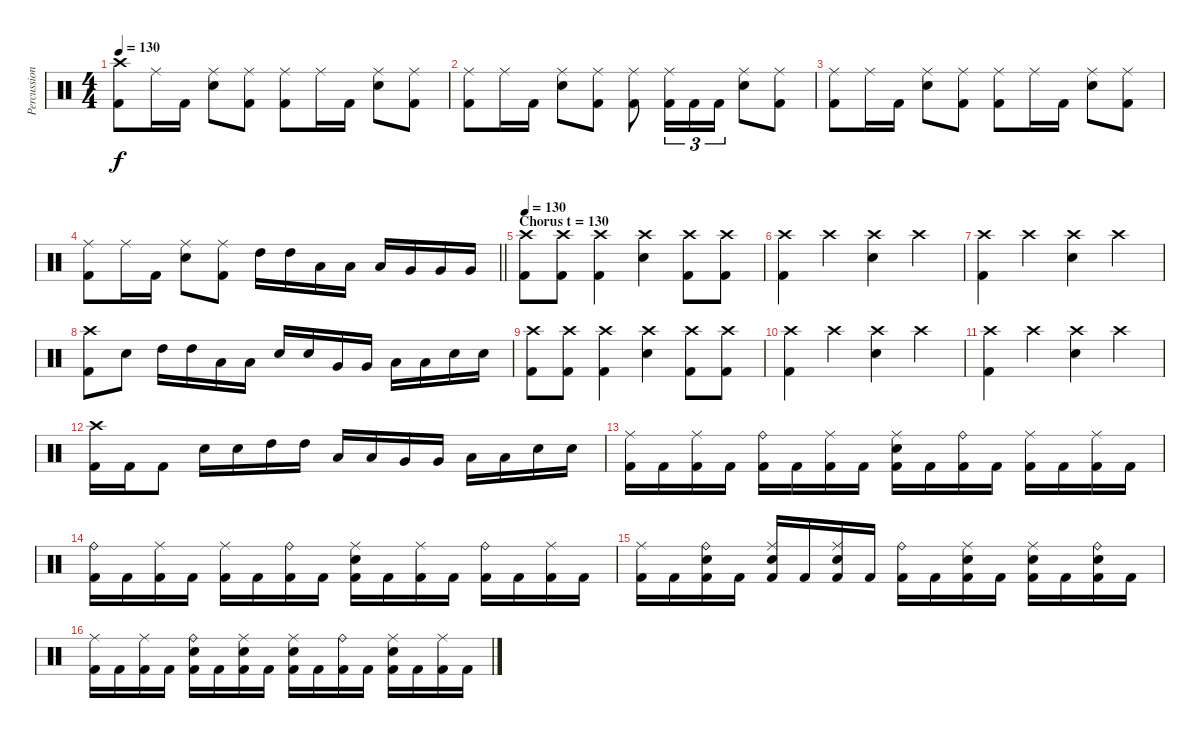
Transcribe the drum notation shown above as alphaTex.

\track ("Percussion" "Percussion") {instrument percussion}
\staff {score}
\articulation defaults
\ts (4 4)
\tempo 130
\clef neutral
\ks c
("Crash high (hit)" "Kick (hit) 2").8{dy f} "Ride (middle)".16 "Kick (hit) 2".16 ("Ride (middle)" "Electric Snare (hit)").8 ("Ride (middle)" "Kick (hit) 2").8 ("Ride (middle)" "Kick (hit) 2").8 "Ride (middle)".16 "Kick (hit) 2".16 ("Ride (middle)" "Electric Snare (hit)").8 ("Ride (middle)" "Kick (hit) 2").8 |
("Ride (middle)" "Kick (hit) 2").8 "Ride (middle)".16 "Kick (hit) 2".16 ("Ride (middle)" "Electric Snare (hit)").8 ("Ride (middle)" "Kick (hit) 2").8 ("Ride (middle)" "Kick (hit) 2").8 ("Ride (middle)" "Kick (hit) 2").16{tu (3 2)} "Kick (hit) 2".16{tu (3 2)} "Kick (hit) 2".16{tu (3 2)} ("Ride (middle)" "Electric Snare (hit)").8 ("Ride (middle)" "Kick (hit) 2").8 |
("Ride (middle)" "Kick (hit) 2").8 "Ride (middle)".16 "Kick (hit) 2".16 ("Ride (middle)" "Electric Snare (hit)").8 ("Ride (middle)" "Kick (hit) 2").8 ("Ride (middle)" "Kick (hit) 2").8 "Ride (middle)".16 "Kick (hit) 2".16 ("Ride (middle)" "Electric Snare (hit)").8 ("Ride (middle)" "Kick (hit) 2").8 |
\barLineRight lightlight
("Ride (middle)" "Kick (hit) 2").8 "Ride (middle)".16 "Kick (hit) 2".16 ("Ride (middle)" "Electric Snare (hit)").8 ("Ride (middle)" "Kick (hit) 2").8 "High Tom (hit)".16 "High Tom (hit)".16 "Low Tom (hit)".16 "Low Tom (hit)".16 "Low Tom (hit)".16 "Very Low Tom (hit)".16 "Very Low Tom (hit)".16 "Very Low Tom (hit)".16 |
\section ("" "Chorus t = 130")
\tempo 130
("Crash high (hit)" "Kick (hit) 2").8 ("Crash high (hit)" "Kick (hit) 2").8 ("Crash high (hit)" "Kick (hit) 2").4 ("Crash high (hit)" "Electric Snare (hit)").4 ("Crash high (hit)" "Kick (hit) 2").8 ("Crash high (hit)" "Kick (hit) 2").8 |
("Crash high (hit)" "Kick (hit) 2").4 "Crash high (hit)".4 ("Crash high (hit)" "Electric Snare (hit)").4 "Crash high (hit)".4 |
("Crash high (hit)" "Kick (hit) 2").4 "Crash high (hit)".4 ("Crash high (hit)" "Electric Snare (hit)").4 "Crash high (hit)".4 |
("Crash high (hit)" "Kick (hit) 2").8 "Electric Snare (hit)".8 "High Tom (hit)".16 "High Tom (hit)".16 "Low Tom (hit)".16 "Low Tom (hit)".16 "Electric Snare (hit)".16 "Electric Snare (hit)".16 "Very Low Tom (hit)".16 "Very Low Tom (hit)".16 "Low Floor Tom (hit)".16 "Low Floor Tom (hit)".16 "Electric Snare (hit)".16 "Electric Snare (hit)".16 |
("Crash high (hit)" "Kick (hit) 2").8 ("Crash high (hit)" "Kick (hit) 2").8 ("Crash high (hit)" "Kick (hit) 2").4 ("Crash high (hit)" "Electric Snare (hit)").4 ("Crash high (hit)" "Kick (hit) 2").8 ("Crash high (hit)" "Kick (hit) 2").8 |
("Crash high (hit)" "Kick (hit) 2").4 "Crash high (hit)".4 ("Crash high (hit)" "Electric Snare (hit)").4 "Crash high (hit)".4 |
("Crash high (hit)" "Kick (hit) 2").4 "Crash high (hit)".4 ("Crash high (hit)" "Electric Snare (hit)").4 "Crash high (hit)".4 |
("Crash high (hit)" "Kick (hit) 2").16 "Kick (hit) 2".16 "Kick (hit) 2".8 "Electric Snare (hit)".16 "Electric Snare (hit)".16 "High Tom (hit)".16 "High Tom (hit)".16 "Low Tom (hit)".16 "Low Tom (hit)".16 "Very Low Tom (hit)".16 "Very Low Tom (hit)".16 "Low Floor Tom (hit)".16 "Low Floor Tom (hit)".16 "Electric Snare (hit)".16 "Electric Snare (hit)".16 |
("Ride (middle)" "Kick (hit) 2").16 "Kick (hit) 2".16 ("Ride (middle)" "Kick (hit) 2").16 "Kick (hit) 2".16 ("Ride (bell)" "Kick (hit) 2").16 "Kick (hit) 2".16 ("Ride (middle)" "Kick (hit) 2").16 "Kick (hit) 2".16 ("Ride (middle)" "Electric Snare (hit)" "Kick (hit) 2").16 "Kick (hit) 2".16 ("Ride (bell)" "Kick (hit) 2").16 "Kick (hit) 2".16 ("Ride (middle)" "Kick (hit) 2").16 "Kick (hit) 2".16 ("Ride (middle)" "Kick (hit) 2").16 "Kick (hit) 2".16 |
("Ride (bell)" "Kick (hit) 2").16 "Kick (hit) 2".16 ("Ride (middle)" "Kick (hit) 2").16 "Kick (hit) 2".16 ("Ride (middle)" "Kick (hit) 2").16 "Kick (hit) 2".16 ("Ride (bell)" "Kick (hit) 2").16 "Kick (hit) 2".16 ("Ride (middle)" "Electric Snare (hit)" "Kick (hit) 2").16 "Kick (hit) 2".16 ("Ride (middle)" "Kick (hit) 2").16 "Kick (hit) 2".16 ("Ride (bell)" "Kick (hit) 2").16 "Kick (hit) 2".16 ("Ride (middle)" "Kick (hit) 2").16 "Kick (hit) 2".16 |
("Ride (middle)" "Kick (hit) 2").16 "Kick (hit) 2".16 ("Ride (bell)" "Electric Snare (hit)" "Kick (hit) 2").16 "Kick (hit) 2".16 ("Ride (middle)" "Electric Snare (hit)" "Kick (hit) 2").16 "Kick (hit) 2".16 ("Ride (middle)" "Electric Snare (hit)" "Kick (hit) 2").16 "Kick (hit) 2".16 ("Ride (bell)" "Kick (hit) 2").16 "Kick (hit) 2".16 ("Ride (middle)" "Electric Snare (hit)" "Kick (hit) 2").16 "Kick (hit) 2".16 ("Ride (middle)" "Electric Snare (hit)" "Kick (hit) 2").16 "Kick (hit) 2".16 ("Ride (bell)" "Electric Snare (hit)" "Kick (hit) 2").16 "Kick (hit) 2".16 |
("Ride (middle)" "Kick (hit) 2").16 "Kick (hit) 2".16 ("Ride (middle)" "Kick (hit) 2").16 "Kick (hit) 2".16 ("Ride (bell)" "Electric Snare (hit)" "Kick (hit) 2").16 "Kick (hit) 2".16 ("Ride (middle)" "Electric Snare (hit)" "Kick (hit) 2").16 "Kick (hit) 2".16 ("Ride (middle)" "Electric Snare (hit)" "Kick (hit) 2").16 "Kick (hit) 2".16 ("Ride (bell)" "Kick (hit) 2").16 "Kick (hit) 2".16 ("Ride (middle)" "Electric Snare (hit)" "Kick (hit) 2").16 "Kick (hit) 2".16 ("Ride (middle)" "Kick (hit) 2").16 "Kick (hit) 2".16
